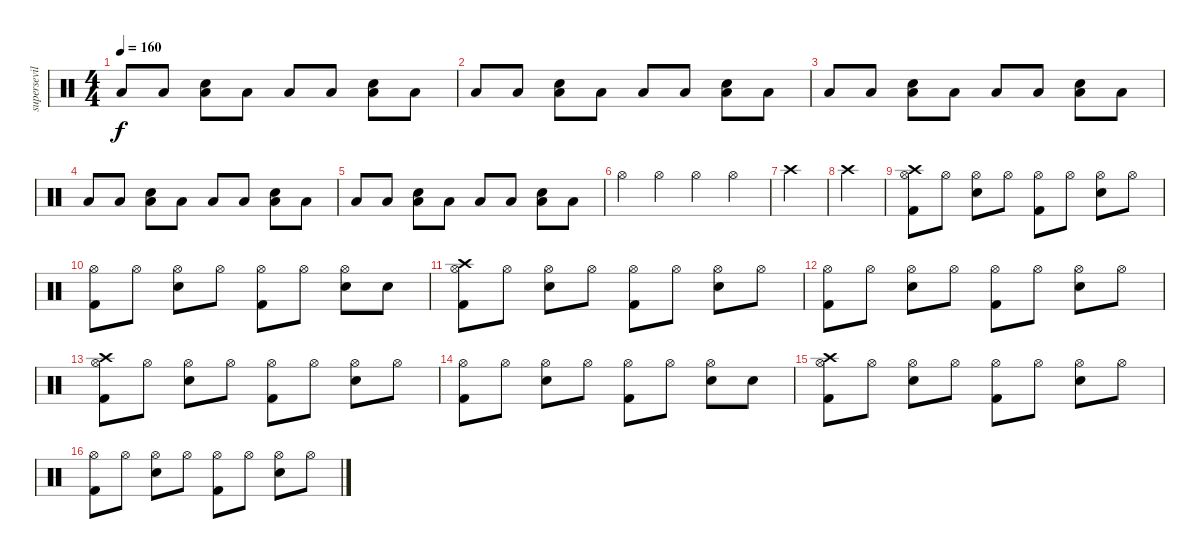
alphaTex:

\track ("supersevilla" "supersevil") {instrument percussion}
\staff {score}
\articulation defaults
\ts (4 4)
\tempo 160
\clef neutral
\ks c "Low Floor Tom (hit)".8{dy f} "Low Floor Tom (hit)".8
("Low Floor Tom (hit)" "Electric Snare (hit)").8 "Low Floor Tom (hit)".8 "Low Floor Tom (hit)".8 "Low Floor Tom (hit)".8 ("Low Floor Tom (hit)" "Electric Snare (hit)").8 "Low Floor Tom (hit)".8 |
"Low Floor Tom (hit)".8 "Low Floor Tom (hit)".8 ("Low Floor Tom (hit)" "Electric Snare (hit)").8 "Low Floor Tom (hit)".8 "Low Floor Tom (hit)".8 "Low Floor Tom (hit)".8 ("Low Floor Tom (hit)" "Electric Snare (hit)").8 "Low Floor Tom (hit)".8 |
"Low Floor Tom (hit)".8 "Low Floor Tom (hit)".8 ("Low Floor Tom (hit)" "Electric Snare (hit)").8 "Low Floor Tom (hit)".8 "Low Floor Tom (hit)".8 "Low Floor Tom (hit)".8 ("Low Floor Tom (hit)" "Electric Snare (hit)").8 "Low Floor Tom (hit)".8 |
"Low Floor Tom (hit)".8 "Low Floor Tom (hit)".8 ("Low Floor Tom (hit)" "Electric Snare (hit)").8 "Low Floor Tom (hit)".8 "Low Floor Tom (hit)".8 "Low Floor Tom (hit)".8 ("Low Floor Tom (hit)" "Electric Snare (hit)").8 "Low Floor Tom (hit)".8 |
"Low Floor Tom (hit)".8 "Low Floor Tom (hit)".8 ("Low Floor Tom (hit)" "Electric Snare (hit)").8 "Low Floor Tom (hit)".8 "Low Floor Tom (hit)".8 "Low Floor Tom (hit)".8 ("Low Floor Tom (hit)" "Electric Snare (hit)").8 "Low Floor Tom (hit)".8 |
"Hi-Hat (open)".4 "Hi-Hat (open)".4 "Hi-Hat (open)".4 "Hi-Hat (open)".4 |
"Crash high (hit)".4 |
"Crash high (hit)".4 |
("Hi-Hat (open)" "Kick (hit) 2" "Crash high (hit)").8 "Hi-Hat (open)".8 ("Hi-Hat (open)" "Electric Snare (hit)").8 "Hi-Hat (open)".8 ("Hi-Hat (open)" "Kick (hit) 2").8 "Hi-Hat (open)".8 ("Hi-Hat (open)" "Electric Snare (hit)").8 "Hi-Hat (open)".8 |
("Hi-Hat (open)" "Kick (hit) 2").8 "Hi-Hat (open)".8 ("Hi-Hat (open)" "Electric Snare (hit)").8 "Hi-Hat (open)".8 ("Hi-Hat (open)" "Kick (hit) 2").8 "Hi-Hat (open)".8 ("Hi-Hat (open)" "Electric Snare (hit)").8 "Electric Snare (hit)".8 |
("Hi-Hat (open)" "Kick (hit) 2" "Crash high (hit)").8 "Hi-Hat (open)".8 ("Hi-Hat (open)" "Electric Snare (hit)").8 "Hi-Hat (open)".8 ("Hi-Hat (open)" "Kick (hit) 2").8 "Hi-Hat (open)".8 ("Hi-Hat (open)" "Electric Snare (hit)").8 "Hi-Hat (open)".8 |
("Hi-Hat (open)" "Kick (hit) 2").8 "Hi-Hat (open)".8 ("Hi-Hat (open)" "Electric Snare (hit)").8 "Hi-Hat (open)".8 ("Hi-Hat (open)" "Kick (hit) 2").8 "Hi-Hat (open)".8 ("Hi-Hat (open)" "Electric Snare (hit)").8 "Hi-Hat (open)".8 |
("Hi-Hat (open)" "Kick (hit) 2" "Crash high (hit)").8 "Hi-Hat (open)".8 ("Hi-Hat (open)" "Electric Snare (hit)").8 "Hi-Hat (open)".8 ("Hi-Hat (open)" "Kick (hit) 2").8 "Hi-Hat (open)".8 ("Hi-Hat (open)" "Electric Snare (hit)").8 "Hi-Hat (open)".8 |
("Hi-Hat (open)" "Kick (hit) 2").8 "Hi-Hat (open)".8 ("Hi-Hat (open)" "Electric Snare (hit)").8 "Hi-Hat (open)".8 ("Hi-Hat (open)" "Kick (hit) 2").8 "Hi-Hat (open)".8 ("Hi-Hat (open)" "Electric Snare (hit)").8 "Electric Snare (hit)".8 |
("Hi-Hat (open)" "Kick (hit) 2" "Crash high (hit)").8 "Hi-Hat (open)".8 ("Hi-Hat (open)" "Electric Snare (hit)").8 "Hi-Hat (open)".8 ("Hi-Hat (open)" "Kick (hit) 2").8 "Hi-Hat (open)".8 ("Hi-Hat (open)" "Electric Snare (hit)").8 "Hi-Hat (open)".8 |
("Hi-Hat (open)" "Kick (hit) 2").8 "Hi-Hat (open)".8 ("Hi-Hat (open)" "Electric Snare (hit)").8 "Hi-Hat (open)".8 ("Hi-Hat (open)" "Kick (hit) 2").8 "Hi-Hat (open)".8 ("Hi-Hat (open)" "Electric Snare (hit)").8 "Hi-Hat (open)".8
